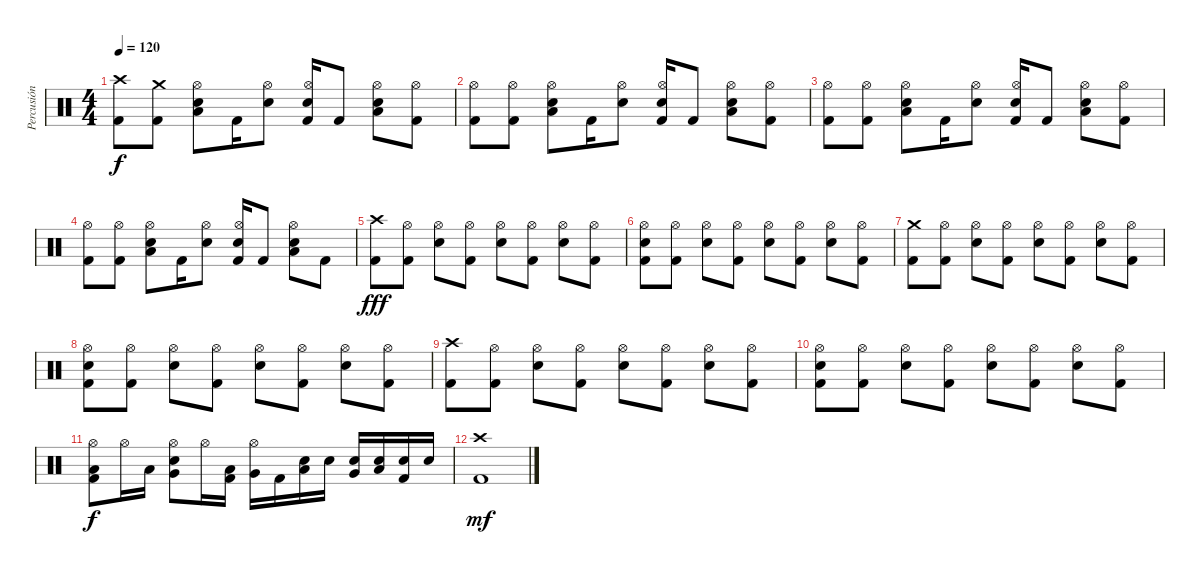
\track ("Percusión" "Percusión") {instrument percussion}
\staff {score}
\articulation defaults
\ts (4 4)
\tempo 120
\clef neutral
\ks c
("Crash high (hit)" "Kick (hit) 2").8{dy f} ("Crash medium (hit)" "Kick (hit) 2").8 ("Hi-Hat (open)" "Electric Snare (hit)" "Low Floor Tom (hit)").8 "Kick (hit) 2".16 ("Hi-Hat (open)" "Electric Snare (hit)").8 ("Hi-Hat (open)" "Electric Snare (hit)" "Kick (hit) 2").16 "Kick (hit) 2".8 ("Hi-Hat (open)" "Electric Snare (hit)" "Low Floor Tom (hit)").8 ("Hi-Hat (open)" "Kick (hit) 2").8 |
("Hi-Hat (open)" "Kick (hit) 2").8 ("Hi-Hat (open)" "Kick (hit) 2").8 ("Hi-Hat (open)" "Electric Snare (hit)" "Low Floor Tom (hit)").8 "Kick (hit) 2".16 ("Hi-Hat (open)" "Electric Snare (hit)").8 ("Hi-Hat (open)" "Electric Snare (hit)" "Kick (hit) 2").16 "Kick (hit) 2".8 ("Hi-Hat (open)" "Electric Snare (hit)" "Low Floor Tom (hit)").8 ("Hi-Hat (open)" "Kick (hit) 2").8 |
("Hi-Hat (open)" "Kick (hit) 2").8 ("Hi-Hat (open)" "Kick (hit) 2").8 ("Hi-Hat (open)" "Electric Snare (hit)" "Low Floor Tom (hit)").8 "Kick (hit) 2".16 ("Hi-Hat (open)" "Electric Snare (hit)").8 ("Hi-Hat (open)" "Electric Snare (hit)" "Kick (hit) 2").16 "Kick (hit) 2".8 ("Hi-Hat (open)" "Electric Snare (hit)" "Low Floor Tom (hit)").8 ("Hi-Hat (open)" "Kick (hit) 2").8 |
("Hi-Hat (open)" "Kick (hit) 2").8 ("Hi-Hat (open)" "Kick (hit) 2").8 ("Hi-Hat (open)" "Electric Snare (hit)" "Low Floor Tom (hit)").8 "Kick (hit) 2".16 ("Hi-Hat (open)" "Electric Snare (hit)").8 ("Hi-Hat (open)" "Electric Snare (hit)" "Kick (hit) 2").16 "Kick (hit) 2".8 ("Hi-Hat (open)" "Electric Snare (hit)" "Low Floor Tom (hit)").8 "Kick (hit) 2".8 |
("Crash high (hit)" "Kick (hit) 2").8{dy fff} ("Hi-Hat (open)" "Kick (hit) 2").8 ("Hi-Hat (open)" "Electric Snare (hit)").8 ("Hi-Hat (open)" "Kick (hit) 2").8 ("Hi-Hat (open)" "Electric Snare (hit)").8 ("Hi-Hat (open)" "Kick (hit) 2").8 ("Hi-Hat (open)" "Electric Snare (hit)").8 ("Hi-Hat (open)" "Kick (hit) 2").8 |
("Hi-Hat (open)" "Electric Snare (hit)" "Kick (hit) 2").8 ("Hi-Hat (open)" "Kick (hit) 2").8 ("Hi-Hat (open)" "Electric Snare (hit)").8 ("Hi-Hat (open)" "Kick (hit) 2").8 ("Hi-Hat (open)" "Electric Snare (hit)").8 ("Hi-Hat (open)" "Kick (hit) 2").8 ("Hi-Hat (open)" "Electric Snare (hit)").8 ("Hi-Hat (open)" "Kick (hit) 2").8 |
("Crash medium (hit)" "Kick (hit) 2").8 ("Hi-Hat (open)" "Kick (hit) 2").8 ("Hi-Hat (open)" "Electric Snare (hit)").8 ("Hi-Hat (open)" "Kick (hit) 2").8 ("Hi-Hat (open)" "Electric Snare (hit)").8 ("Hi-Hat (open)" "Kick (hit) 2").8 ("Hi-Hat (open)" "Electric Snare (hit)").8 ("Hi-Hat (open)" "Kick (hit) 2").8 |
("Hi-Hat (open)" "Electric Snare (hit)" "Kick (hit) 2").8 ("Hi-Hat (open)" "Kick (hit) 2").8 ("Hi-Hat (open)" "Electric Snare (hit)").8 ("Hi-Hat (open)" "Kick (hit) 2").8 ("Hi-Hat (open)" "Electric Snare (hit)").8 ("Hi-Hat (open)" "Kick (hit) 2").8 ("Hi-Hat (open)" "Electric Snare (hit)").8 ("Hi-Hat (open)" "Kick (hit) 2").8 |
("Crash high (hit)" "Kick (hit) 2").8 ("Hi-Hat (open)" "Kick (hit) 2").8 ("Hi-Hat (open)" "Electric Snare (hit)").8 ("Hi-Hat (open)" "Kick (hit) 2").8 ("Hi-Hat (open)" "Electric Snare (hit)").8 ("Hi-Hat (open)" "Kick (hit) 2").8 ("Hi-Hat (open)" "Electric Snare (hit)").8 ("Hi-Hat (open)" "Kick (hit) 2").8 |
("Hi-Hat (open)" "Electric Snare (hit)" "Kick (hit) 2").8 ("Hi-Hat (open)" "Kick (hit) 2").8 ("Hi-Hat (open)" "Electric Snare (hit)").8 ("Hi-Hat (open)" "Kick (hit) 2").8 ("Hi-Hat (open)" "Electric Snare (hit)").8 ("Hi-Hat (open)" "Kick (hit) 2").8 ("Hi-Hat (open)" "Electric Snare (hit)").8 ("Hi-Hat (open)" "Kick (hit) 2").8 |
("Hi-Hat (open)" "Low Floor Tom (hit)" "Kick (hit) 2").8{dy f} "Hi-Hat (open)".16 "Low Floor Tom (hit)".16 ("Hi-Hat (open)" "Electric Snare (hit)" "Very Low Tom (hit)").8 "Hi-Hat (open)".16 ("Low Floor Tom (hit)" "Kick (hit) 2").16 ("Hi-Hat (open)" "Very Low Tom (hit)").16 "Kick (hit) 2".16 ("Electric Snare (hit)" "Low Floor Tom (hit)").16 "Electric Snare (hit)".16 ("Electric Snare (hit)" "Very Low Tom (hit)").16 ("Electric Snare (hit)" "Low Floor Tom (hit)").16 ("Electric Snare (hit)" "Kick (hit) 2").16 "Electric Snare (hit)".16 |
("Crash high (hit)" "Kick (hit) 2").1{dy mf}
